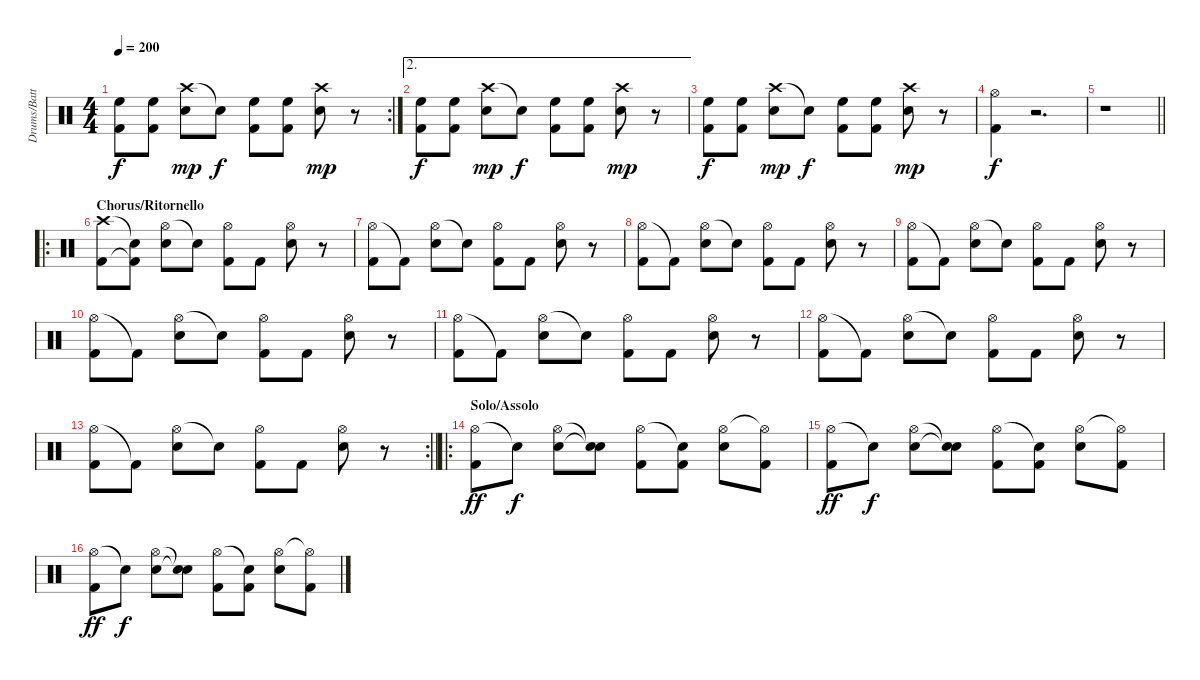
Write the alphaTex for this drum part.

\track ("Drums/Batteria" "Drums/Batt") {instrument percussion}
\staff {score}
\articulation defaults
\rc 2
\ts (4 4)
\tempo 200
\clef neutral
\ks c
("High Floor Tom (hit)" "Kick (hit) 2").8{dy f} ("High Floor Tom (hit)" "Kick (hit) 2").8 ("Crash high (hit)" "Electric Snare (hit)").8{dy mp} "Snare (hit)"{t}.8{dy f} ("High Floor Tom (hit)" "Kick (hit) 2").8 ("High Floor Tom (hit)" "Kick (hit) 2").8 ("Crash high (hit)" "Electric Snare (hit)").8{dy mp} r.8 |
\ae 2
("High Floor Tom (hit)" "Kick (hit) 2").8{dy f} ("High Floor Tom (hit)" "Kick (hit) 2").8 ("Crash high (hit)" "Electric Snare (hit)").8{dy mp} "Snare (hit)"{t}.8{dy f} ("High Floor Tom (hit)" "Kick (hit) 2").8 ("High Floor Tom (hit)" "Kick (hit) 2").8 ("Crash high (hit)" "Electric Snare (hit)").8{dy mp} r.8 |
("High Floor Tom (hit)" "Kick (hit) 2").8{dy f} ("High Floor Tom (hit)" "Kick (hit) 2").8 ("Crash high (hit)" "Electric Snare (hit)").8{dy mp} "Snare (hit)"{t}.8{dy f} ("High Floor Tom (hit)" "Kick (hit) 2").8 ("High Floor Tom (hit)" "Kick (hit) 2").8 ("Crash high (hit)" "Electric Snare (hit)").8{dy mp} r.8 |
("Hi-Hat (open)" "Kick (hit) 2").4{dy f} r.2{d} |
\barLineRight lightlight
r.1 |
\ro
\section ("" "Chorus/Ritornello")
("Crash high (hit)" "Kick (hit) 2").8 ("Snare (hit)"{t} "Kick (hit) 2"{t}).8 ("Hi-Hat (open)" "Electric Snare (hit)").8 "Snare (hit)"{t}.8 ("Hi-Hat (open)" "Kick (hit) 2").8 "Kick (hit) 2".8 ("Hi-Hat (open)" "Electric Snare (hit)").8 r.8 |
("Hi-Hat (open)" "Kick (hit) 2").8 "Kick (hit) 2"{t}.8 ("Hi-Hat (open)" "Electric Snare (hit)").8 "Electric Snare (hit)"{t}.8 ("Hi-Hat (open)" "Kick (hit) 2").8 "Kick (hit) 2".8 ("Hi-Hat (open)" "Electric Snare (hit)").8 r.8 |
("Hi-Hat (open)" "Kick (hit) 2").8 "Kick (hit) 2"{t}.8 ("Hi-Hat (open)" "Electric Snare (hit)").8 "Electric Snare (hit)"{t}.8 ("Hi-Hat (open)" "Kick (hit) 2").8 "Kick (hit) 2".8 ("Hi-Hat (open)" "Electric Snare (hit)").8 r.8 |
("Hi-Hat (open)" "Kick (hit) 2").8 "Kick (hit) 2"{t}.8 ("Hi-Hat (open)" "Electric Snare (hit)").8 "Electric Snare (hit)"{t}.8 ("Hi-Hat (open)" "Kick (hit) 2").8 "Kick (hit) 2".8 ("Hi-Hat (open)" "Electric Snare (hit)").8 r.8 |
("Hi-Hat (open)" "Kick (hit) 2").8 "Kick (hit) 2"{t}.8 ("Hi-Hat (open)" "Electric Snare (hit)").8 "Electric Snare (hit)"{t}.8 ("Hi-Hat (open)" "Kick (hit) 2").8 "Kick (hit) 2".8 ("Hi-Hat (open)" "Electric Snare (hit)").8 r.8 |
("Hi-Hat (open)" "Kick (hit) 2").8 "Kick (hit) 2"{t}.8 ("Hi-Hat (open)" "Electric Snare (hit)").8 "Electric Snare (hit)"{t}.8 ("Hi-Hat (open)" "Kick (hit) 2").8 "Kick (hit) 2".8 ("Hi-Hat (open)" "Electric Snare (hit)").8 r.8 |
("Hi-Hat (open)" "Kick (hit) 2").8 "Kick (hit) 2"{t}.8 ("Hi-Hat (open)" "Electric Snare (hit)").8 "Electric Snare (hit)"{t}.8 ("Hi-Hat (open)" "Kick (hit) 2").8 "Kick (hit) 2".8 ("Hi-Hat (open)" "Electric Snare (hit)").8 r.8 |
\rc 2
\barLineRight lightlight
("Hi-Hat (open)" "Kick (hit) 2").8 "Kick (hit) 2"{t}.8 ("Hi-Hat (open)" "Electric Snare (hit)").8 "Electric Snare (hit)"{t}.8 ("Hi-Hat (open)" "Kick (hit) 2").8 "Kick (hit) 2".8 ("Hi-Hat (open)" "Electric Snare (hit)").8 r.8 |
\ro
\section ("" "Solo/Assolo")
("Hi-Hat (open)" "Kick (hit) 2").8{dy ff} "Snare (hit)"{t}.8{dy f} ("Hi-Hat (open)" "Electric Snare (hit)").8 ("Snare (hit)"{t} "Snare (hit)"{t}).8 ("Hi-Hat (open)" "Kick (hit) 2").8 ("Snare (hit)"{t} "Kick (hit) 2").8 ("Hi-Hat (open)" "Electric Snare (hit)").8 ("Hi-Hat (open)"{t} "Kick (hit) 2").8 |
("Hi-Hat (open)" "Kick (hit) 2").8{dy ff} "Snare (hit)"{t}.8{dy f} ("Hi-Hat (open)" "Electric Snare (hit)").8 ("Snare (hit)"{t} "Snare (hit)"{t}).8 ("Hi-Hat (open)" "Kick (hit) 2").8 ("Snare (hit)"{t} "Kick (hit) 2").8 ("Hi-Hat (open)" "Electric Snare (hit)").8 ("Hi-Hat (open)"{t} "Kick (hit) 2").8 |
("Hi-Hat (open)" "Kick (hit) 2").8{dy ff} "Snare (hit)"{t}.8{dy f} ("Hi-Hat (open)" "Electric Snare (hit)").8 ("Snare (hit)"{t} "Snare (hit)"{t}).8 ("Hi-Hat (open)" "Kick (hit) 2").8 ("Snare (hit)"{t} "Kick (hit) 2").8 ("Hi-Hat (open)" "Electric Snare (hit)").8 ("Hi-Hat (open)"{t} "Kick (hit) 2").8
